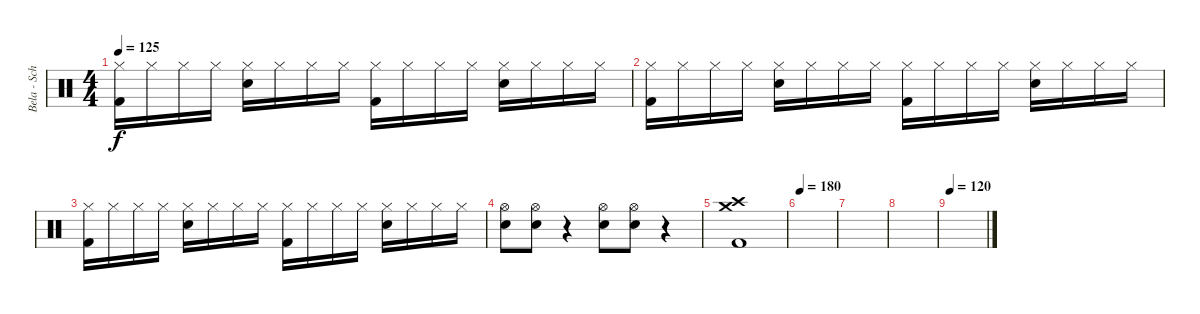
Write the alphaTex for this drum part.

\track ("Bela - Schlagzeug" "Bela - Sch") {instrument percussion}
\staff {score}
\articulation defaults
\ts (4 4)
\tempo 125
\clef neutral
\ks c
("Hi-Hat (closed)" "Kick (hit) 2").16{dy f} "Hi-Hat (closed)".16 "Hi-Hat (closed)".16 "Hi-Hat (closed)".16 ("Hi-Hat (closed)" "Electric Snare (hit)").16 "Hi-Hat (closed)".16 "Hi-Hat (closed)".16 "Hi-Hat (closed)".16 ("Hi-Hat (closed)" "Kick (hit) 2").16 "Hi-Hat (closed)".16 "Hi-Hat (closed)".16 "Hi-Hat (closed)".16 ("Hi-Hat (closed)" "Electric Snare (hit)").16 "Hi-Hat (closed)".16 "Hi-Hat (closed)".16 "Hi-Hat (closed)".16 |
("Hi-Hat (closed)" "Kick (hit) 2").16 "Hi-Hat (closed)".16 "Hi-Hat (closed)".16 "Hi-Hat (closed)".16 ("Hi-Hat (closed)" "Electric Snare (hit)").16 "Hi-Hat (closed)".16 "Hi-Hat (closed)".16 "Hi-Hat (closed)".16 ("Hi-Hat (closed)" "Kick (hit) 2").16 "Hi-Hat (closed)".16 "Hi-Hat (closed)".16 "Hi-Hat (closed)".16 ("Hi-Hat (closed)" "Electric Snare (hit)").16 "Hi-Hat (closed)".16 "Hi-Hat (closed)".16 "Hi-Hat (closed)".16 |
("Hi-Hat (closed)" "Kick (hit) 2").16 "Hi-Hat (closed)".16 "Hi-Hat (closed)".16 "Hi-Hat (closed)".16 ("Hi-Hat (closed)" "Electric Snare (hit)").16 "Hi-Hat (closed)".16 "Hi-Hat (closed)".16 "Hi-Hat (closed)".16 ("Hi-Hat (closed)" "Kick (hit) 2").16 "Hi-Hat (closed)".16 "Hi-Hat (closed)".16 "Hi-Hat (closed)".16 ("Hi-Hat (closed)" "Electric Snare (hit)").16 "Hi-Hat (closed)".16 "Hi-Hat (closed)".16 "Hi-Hat (closed)".16 |
("Hi-Hat (open)" "Electric Snare (hit)").8 ("Hi-Hat (open)" "Electric Snare (hit)").8 r.4 ("Hi-Hat (open)" "Electric Snare (hit)").8 ("Hi-Hat (open)" "Electric Snare (hit)").8 r.4 |
("Crash high (hit)" "Crash medium (hit)" "Kick (hit) 2").1 |
\tempo 180
|
|
|
\tempo 120
